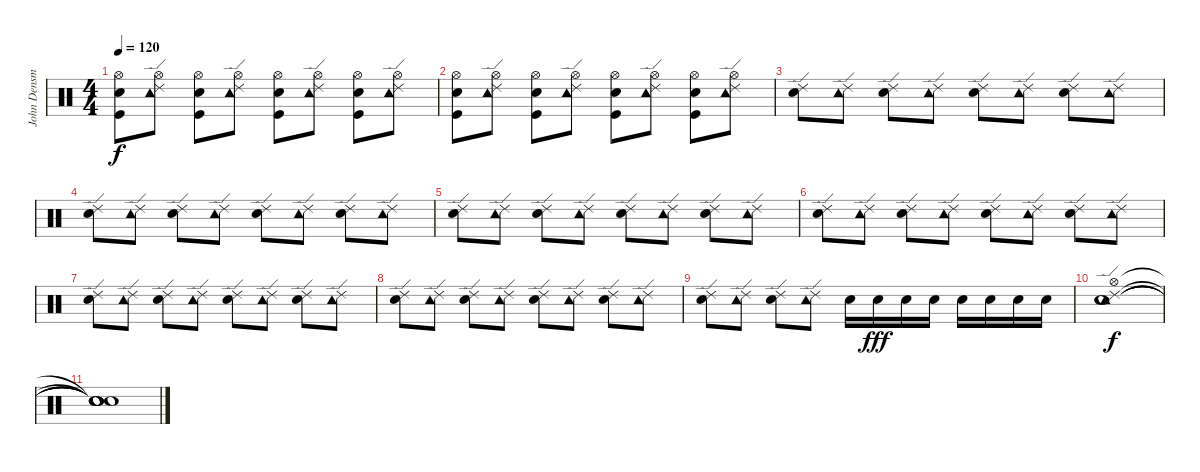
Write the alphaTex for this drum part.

\track ("John Densmore" "John Densm") {instrument percussion}
\staff {score}
\articulation defaults
\ts (4 4)
\tempo 120
\clef neutral
\ks c
("Snare (hit) 2" "Kick (hit)" "Hi-Hat (open)").8{dy f} ("Hi-Hat (open)" "Tambourine (hit)" "Ride (edge) 2").8 ("Electric Snare (hit)" "Kick (hit)" "Hi-Hat (open)").8 ("Hi-Hat (open)" "Tambourine (hit)" "Ride (edge) 2").8 ("Snare (hit) 2" "Kick (hit)" "Hi-Hat (open)").8 ("Hi-Hat (open)" "Tambourine (hit)" "Ride (edge) 2").8 ("Electric Snare (hit)" "Kick (hit)" "Hi-Hat (open)").8 ("Hi-Hat (open)" "Tambourine (hit)" "Ride (edge) 2").8 |
("Snare (hit) 2" "Kick (hit)" "Hi-Hat (open)").8 ("Hi-Hat (open)" "Tambourine (hit)" "Ride (edge) 2").8 ("Electric Snare (hit)" "Kick (hit)" "Hi-Hat (open)").8 ("Hi-Hat (open)" "Tambourine (hit)" "Ride (edge) 2").8 ("Snare (hit) 2" "Kick (hit)" "Hi-Hat (open)").8 ("Hi-Hat (open)" "Tambourine (hit)" "Ride (edge) 2").8 ("Electric Snare (hit)" "Kick (hit)" "Hi-Hat (open)").8 ("Hi-Hat (open)" "Tambourine (hit)" "Ride (edge) 2").8 |
("Ride (edge) 2" "Electric Snare (hit)").8 ("Ride (edge) 2" "Tambourine (hit)").8 ("Ride (edge) 2" "Snare (hit) 2").8 ("Ride (edge) 2" "Tambourine (hit)").8 ("Ride (edge) 2" "Electric Snare (hit)").8 ("Ride (edge) 2" "Tambourine (hit)").8 ("Ride (edge) 2" "Snare (hit) 2").8 ("Ride (edge) 2" "Tambourine (hit)").8 |
("Ride (edge) 2" "Electric Snare (hit)").8 ("Ride (edge) 2" "Tambourine (hit)").8 ("Ride (edge) 2" "Snare (hit) 2").8 ("Ride (edge) 2" "Tambourine (hit)").8 ("Ride (edge) 2" "Electric Snare (hit)").8 ("Ride (edge) 2" "Tambourine (hit)").8 ("Ride (edge) 2" "Snare (hit) 2").8 ("Ride (edge) 2" "Tambourine (hit)").8 |
("Ride (edge) 2" "Electric Snare (hit)").8 ("Ride (edge) 2" "Tambourine (hit)").8 ("Ride (edge) 2" "Snare (hit) 2").8 ("Ride (edge) 2" "Tambourine (hit)").8 ("Ride (edge) 2" "Electric Snare (hit)").8 ("Ride (edge) 2" "Tambourine (hit)").8 ("Ride (edge) 2" "Snare (hit) 2").8 ("Ride (edge) 2" "Tambourine (hit)").8 |
("Ride (edge) 2" "Electric Snare (hit)").8 ("Ride (edge) 2" "Tambourine (hit)").8 ("Ride (edge) 2" "Snare (hit) 2").8 ("Ride (edge) 2" "Tambourine (hit)").8 ("Ride (edge) 2" "Electric Snare (hit)").8 ("Ride (edge) 2" "Tambourine (hit)").8 ("Ride (edge) 2" "Snare (hit) 2").8 ("Ride (edge) 2" "Tambourine (hit)").8 |
("Ride (edge) 2" "Electric Snare (hit)").8 ("Ride (edge) 2" "Tambourine (hit)").8 ("Ride (edge) 2" "Snare (hit) 2").8 ("Ride (edge) 2" "Tambourine (hit)").8 ("Ride (edge) 2" "Electric Snare (hit)").8 ("Ride (edge) 2" "Tambourine (hit)").8 ("Ride (edge) 2" "Snare (hit) 2").8 ("Ride (edge) 2" "Tambourine (hit)").8 |
("Ride (edge) 2" "Electric Snare (hit)").8 ("Ride (edge) 2" "Tambourine (hit)").8 ("Ride (edge) 2" "Snare (hit) 2").8 ("Ride (edge) 2" "Tambourine (hit)").8 ("Ride (edge) 2" "Electric Snare (hit)").8 ("Ride (edge) 2" "Tambourine (hit)").8 ("Ride (edge) 2" "Snare (hit) 2").8 ("Ride (edge) 2" "Tambourine (hit)").8 |
("Ride (edge) 2" "Electric Snare (hit)").8 ("Ride (edge) 2" "Tambourine (hit)").8 ("Ride (edge) 2" "Snare (hit) 2").8 ("Ride (edge) 2" "Tambourine (hit)").8 "Snare (hit) 2".16 "Snare (hit) 2".16{dy fff} "Snare (hit) 2".16 "Snare (hit) 2".16 "Snare (hit) 2".16 "Snare (hit) 2".16 "Snare (hit) 2".16 "Snare (hit) 2".16 |
("Ride (edge) 2" "Hi-Hat (open)" "Tambourine (hit)" "Snare (hit) 2" "Electric Snare (hit)").1{dy f} |
("Snare (hit)"{t} "Snare (hit)"{t} "Snare (hit)"{t} "Snare (hit)"{t} "Snare (hit)"{t}).1
